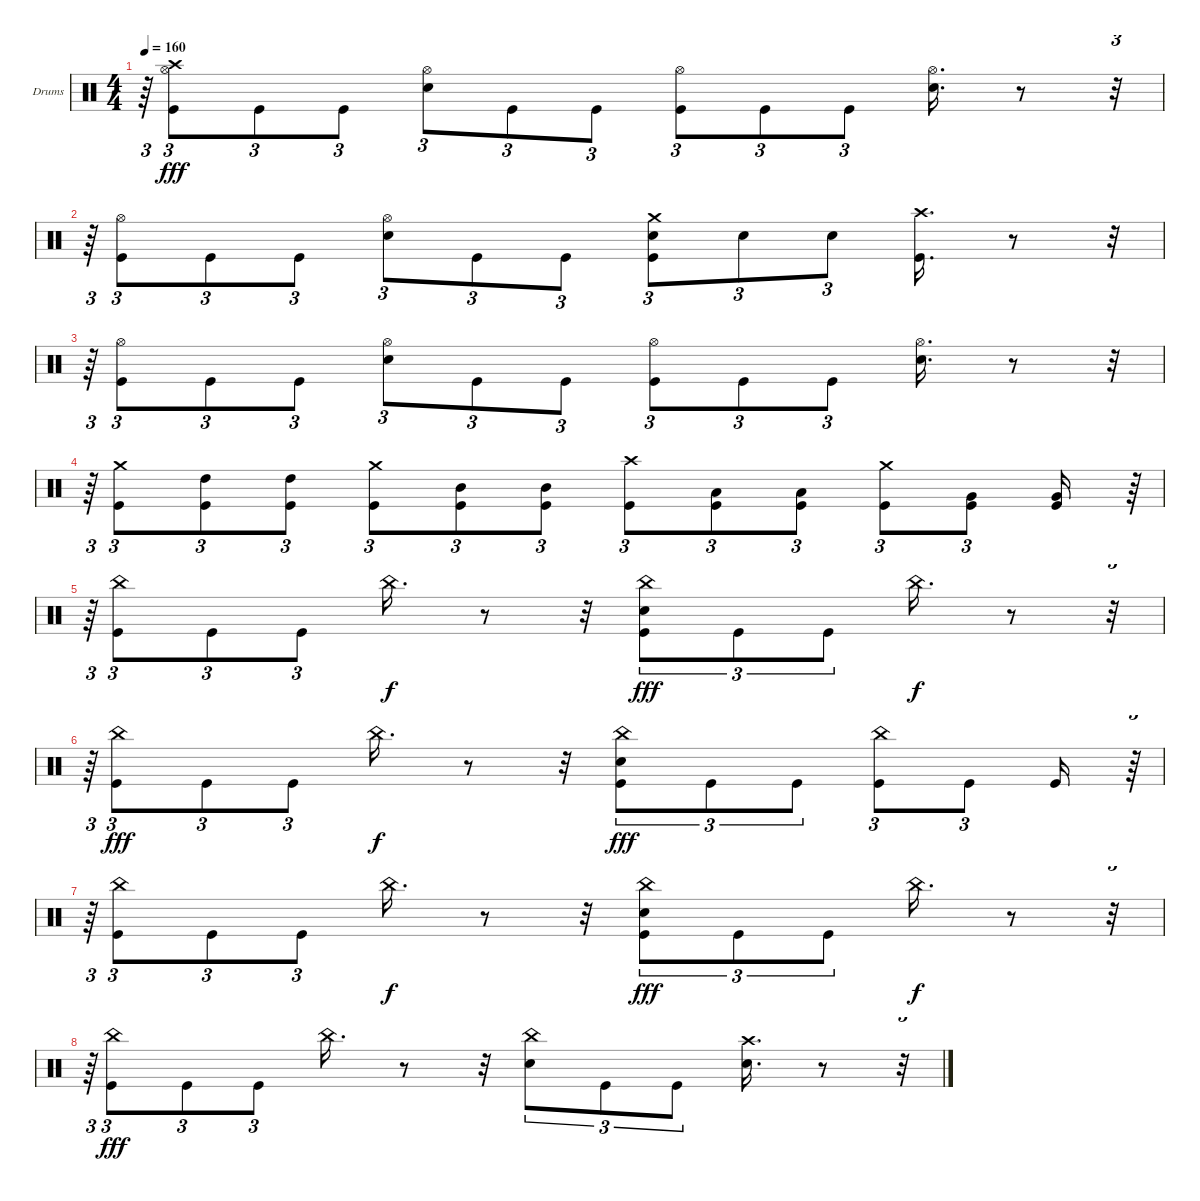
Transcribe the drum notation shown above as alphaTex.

\bracketExtendMode groupsimilarinstruments
\firstSystemTrackNameOrientation horizontal
\otherSystemsTrackNameOrientation horizontal
\track ("Drums" "Drums") {instrument percussion}
\staff {score}
\articulation defaults
\ts (4 4)
\tempo 160
\clef neutral
\ks c
r.64{tu (3 2) dy fff} ("Crash high (hit)" "Hi-Hat (open)" "Kick (hit)").8{tu (3 2)} "Kick (hit)".8{tu (3 2)} "Kick (hit)".8{tu (3 2)} ("Hi-Hat (open)" "Snare (hit) 2").8{tu (3 2)} "Kick (hit)".8{tu (3 2)} "Kick (hit)".8{tu (3 2)} ("Kick (hit)" "Hi-Hat (open)").8{tu (3 2)} "Kick (hit)".8{tu (3 2)} "Kick (hit)".8{tu (3 2)} ("Hi-Hat (open)" "Snare (hit) 2").16{d} r.8 r.32{tu (3 2)} |
r.64{tu (3 2)} ("Hi-Hat (open)" "Kick (hit)").8{tu (3 2)} "Kick (hit)".8{tu (3 2)} "Kick (hit)".8{tu (3 2)} ("Hi-Hat (open)" "Snare (hit) 2").8{tu (3 2)} "Kick (hit)".8{tu (3 2)} "Kick (hit)".8{tu (3 2)} ("Kick (hit)" "Crash medium (hit)" "Snare (hit) 2").8{tu (3 2)} "Snare (hit) 2".8{tu (3 2)} "Snare (hit) 2".8{tu (3 2)} ("Crash high (hit)" "Kick (hit)").16{d} r.8 r.32{tu (3 2)} |
r.64{tu (3 2)} ("Hi-Hat (open)" "Kick (hit)").8{tu (3 2)} "Kick (hit)".8{tu (3 2)} "Kick (hit)".8{tu (3 2)} ("Hi-Hat (open)" "Snare (hit) 2").8{tu (3 2)} "Kick (hit)".8{tu (3 2)} "Kick (hit)".8{tu (3 2)} ("Hi-Hat (open)" "Kick (hit)").8{tu (3 2)} "Kick (hit)".8{tu (3 2)} "Kick (hit)".8{tu (3 2)} ("Hi-Hat (open)" "Snare (hit) 2").16{d} r.8 r.32{tu (3 2)} |
r.64{tu (3 2)} ("Crash medium (hit)" "Kick (hit)").8{tu (3 2)} ("High Tom (hit)" "Kick (hit)").8{tu (3 2)} ("High Tom (hit)" "Kick (hit)").8{tu (3 2)} ("Crash medium (hit)" "Kick (hit)").8{tu (3 2)} ("Mid Tom (hit)" "Kick (hit)").8{tu (3 2)} ("Mid Tom (hit)" "Kick (hit)").8{tu (3 2)} ("Kick (hit)" "Crash high (hit)").8{tu (3 2)} ("Low Tom (hit)" "Kick (hit)").8{tu (3 2)} ("Low Tom (hit)" "Kick (hit)").8{tu (3 2)} ("Kick (hit)" "Crash medium (hit)").8{tu (3 2)} ("Very Low Tom (hit)" "Kick (hit)").8{tu (3 2)} ("Very Low Tom (hit)" "Kick (hit)").16 r.64{tu (3 2)} |
r.64{tu (3 2)} ("Kick (hit)" "China (hit)").8{tu (3 2)} "Kick (hit)".8{tu (3 2)} "Kick (hit)".8{tu (3 2)} "China (hit)".16{d dy f} r.8 r.32 ("Snare (hit) 2" "Kick (hit)" "China (hit)").8{tu (3 2) dy fff} "Kick (hit)".8{tu (3 2)} "Kick (hit)".8{tu (3 2)} "China (hit)".16{d dy f} r.8 r.32{tu (3 2)} |
r.64{tu (3 2)} ("Kick (hit)" "China (hit)").8{tu (3 2) dy fff} "Kick (hit)".8{tu (3 2)} "Kick (hit)".8{tu (3 2)} "China (hit)".16{d dy f} r.8 r.32 ("Kick (hit)" "Snare (hit) 2" "China (hit)").8{tu (3 2) dy fff} "Kick (hit)".8{tu (3 2)} "Kick (hit)".8{tu (3 2)} ("Kick (hit)" "China (hit)").8{tu (3 2)} "Kick (hit)".8{tu (3 2)} "Kick (hit)".16 r.64{tu (3 2)} |
r.64{tu (3 2)} ("Kick (hit)" "China (hit)").8{tu (3 2)} "Kick (hit)".8{tu (3 2)} "Kick (hit)".8{tu (3 2)} "China (hit)".16{d dy f} r.8 r.32 ("Kick (hit)" "Snare (hit) 2" "China (hit)").8{tu (3 2) dy fff} "Kick (hit)".8{tu (3 2)} "Kick (hit)".8{tu (3 2)} "China (hit)".16{d dy f} r.8 r.32{tu (3 2)} |
r.64{tu (3 2)} ("Kick (hit)" "China (hit)").8{tu (3 2) dy fff} "Kick (hit)".8{tu (3 2)} "Kick (hit)".8{tu (3 2)} "China (hit)".16{d} r.8 r.32 ("Snare (hit) 2" "China (hit)").8{tu (3 2)} "Kick (hit)".8{tu (3 2)} "Kick (hit)".8{tu (3 2)} ("Crash high (hit)" "Snare (hit) 2").16{d} r.8 r.32{tu (3 2)}
